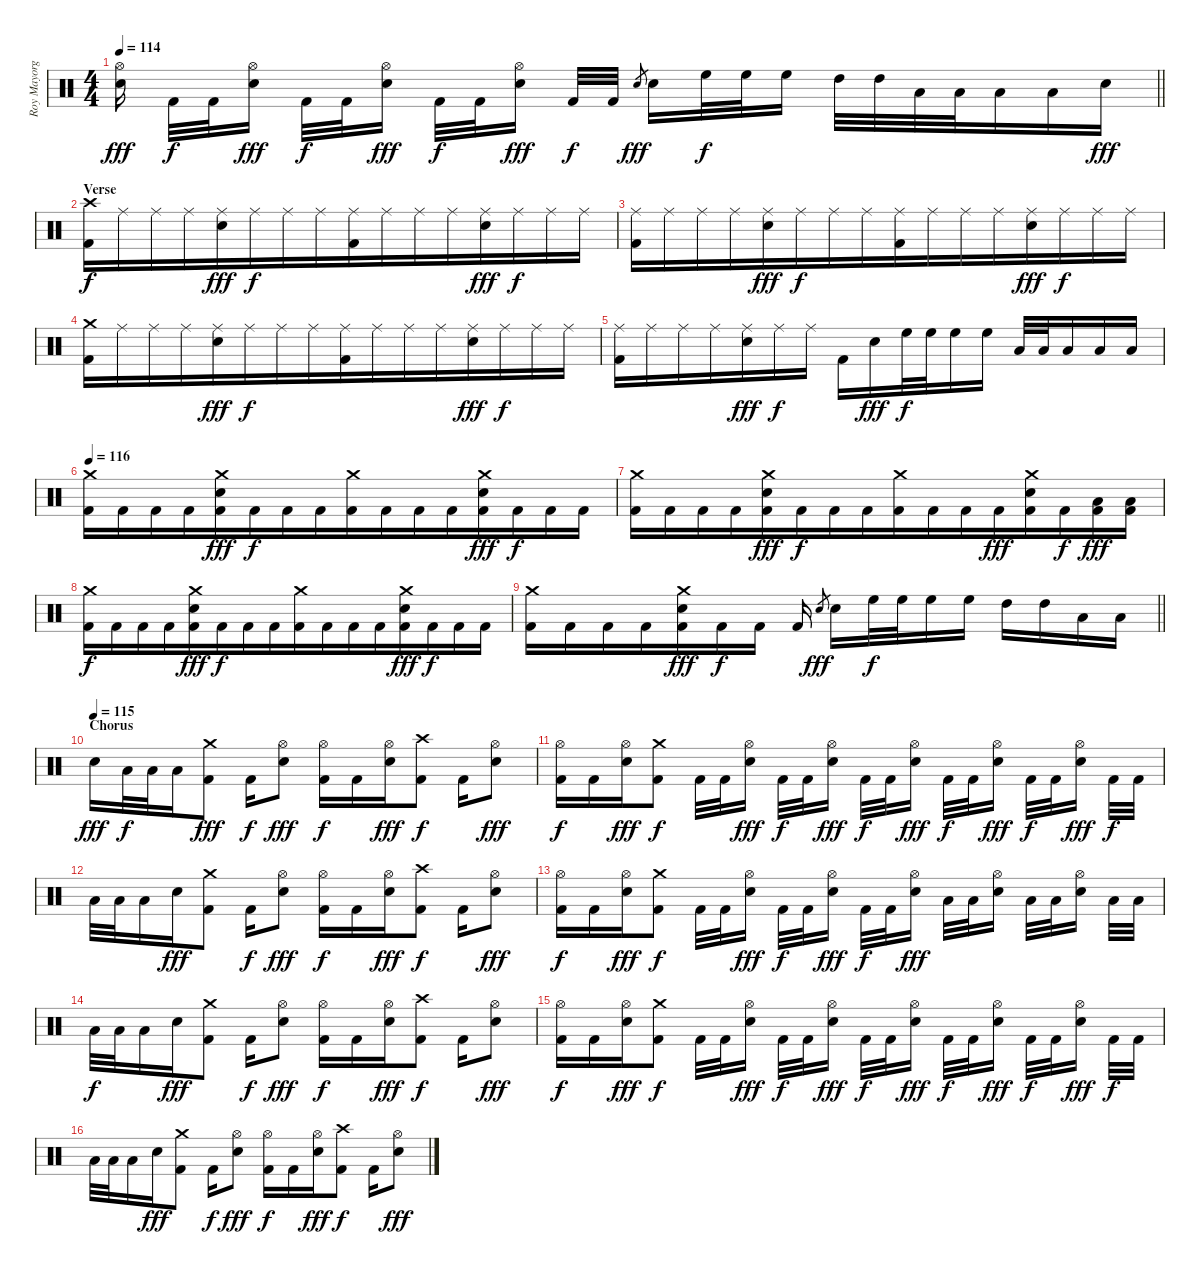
\track ("Roy Mayorga" "Roy Mayorg") {instrument percussion}
\staff {score}
\articulation defaults
\ts (4 4)
\tempo 114
\clef neutral
\barLineRight lightlight
\ks c
("Hi-Hat (open)" "Electric Snare (hit)").16{dy fff beam split} "Kick (hit) 2".32{dy f} "Kick (hit) 2".32 ("Hi-Hat (open)" "Electric Snare (hit)").16{dy fff beam split} "Kick (hit) 2".32{dy f} "Kick (hit) 2".32{beam merge} ("Hi-Hat (open)" "Electric Snare (hit)").16{dy fff beam split} "Kick (hit) 2".32{dy f} "Kick (hit) 2".32 ("Hi-Hat (open)" "Electric Snare (hit)").16{dy fff beam split} "Kick (hit) 2".32{dy f} "Kick (hit) 2".32 "Electric Snare (hit)".8{gr dy fff beam merge} "Electric Snare (hit)".16 "High Floor Tom (hit)".32{dy f} "High Floor Tom (hit)".32 "High Floor Tom (hit)".16{beam split} "High Tom (hit)".32 "High Tom (hit)".32{beam merge} "Low Tom (hit)".32 "Low Tom (hit)".32 "Low Floor Tom (hit)".16 "Low Floor Tom (hit)".16 "Electric Snare (hit)".16{dy fff} |
\section ("" "Verse")
("Crash high (hit)" "Kick (hit) 2").16{dy f} "Ride (middle)".16 "Ride (middle)".16 "Ride (middle)".16{beam merge} ("Ride (middle)" "Electric Snare (hit)").16{dy fff} "Ride (middle)".16{dy f} "Ride (middle)".16 "Ride (middle)".16{beam merge} ("Ride (middle)" "Kick (hit) 2").16 "Ride (middle)".16 "Ride (middle)".16 "Ride (middle)".16{beam merge} ("Ride (middle)" "Electric Snare (hit)").16{dy fff} "Ride (middle)".16{dy f} "Ride (middle)".16 "Ride (middle)".16 |
("Ride (middle)" "Kick (hit) 2").16 "Ride (middle)".16 "Ride (middle)".16 "Ride (middle)".16{beam merge} ("Ride (middle)" "Electric Snare (hit)").16{dy fff} "Ride (middle)".16{dy f} "Ride (middle)".16 "Ride (middle)".16{beam merge} ("Ride (middle)" "Kick (hit) 2").16 "Ride (middle)".16 "Ride (middle)".16 "Ride (middle)".16{beam merge} ("Ride (middle)" "Electric Snare (hit)").16{dy fff} "Ride (middle)".16{dy f} "Ride (middle)".16 "Ride (middle)".16 |
("Crash medium (hit)" "Kick (hit) 2").16 "Ride (middle)".16 "Ride (middle)".16 "Ride (middle)".16{beam merge} ("Ride (middle)" "Electric Snare (hit)").16{dy fff} "Ride (middle)".16{dy f} "Ride (middle)".16 "Ride (middle)".16{beam merge} ("Ride (middle)" "Kick (hit) 2").16 "Ride (middle)".16 "Ride (middle)".16 "Ride (middle)".16{beam merge} ("Ride (middle)" "Electric Snare (hit)").16{dy fff} "Ride (middle)".16{dy f} "Ride (middle)".16 "Ride (middle)".16 |
("Ride (middle)" "Kick (hit) 2").16 "Ride (middle)".16 "Ride (middle)".16 "Ride (middle)".16{beam merge} ("Ride (middle)" "Electric Snare (hit)").16{dy fff} "Ride (middle)".16{dy f} "Ride (middle)".16{beam split} "Kick (hit) 2".16{beam merge} "Electric Snare (hit)".16{dy fff} "High Floor Tom (hit)".32{dy f} "High Floor Tom (hit)".32 "High Floor Tom (hit)".16 "High Floor Tom (hit)".16 "Low Tom (hit)".32 "Low Tom (hit)".32 "Low Floor Tom (hit)".16 "Low Floor Tom (hit)".16 "Low Floor Tom (hit)".16 |
\tempo 116
("Crash medium (hit)" "Kick (hit) 2").16 "Kick (hit) 2".16 "Kick (hit) 2".16 "Kick (hit) 2".16{beam merge} ("Crash medium (hit)" "Electric Snare (hit)" "Kick (hit) 2").16{dy fff} "Kick (hit) 2".16{dy f} "Kick (hit) 2".16 "Kick (hit) 2".16{beam merge} ("Crash medium (hit)" "Kick (hit) 2").16 "Kick (hit) 2".16 "Kick (hit) 2".16 "Kick (hit) 2".16{beam merge} ("Crash medium (hit)" "Electric Snare (hit)" "Kick (hit) 2").16{dy fff} "Kick (hit) 2".16{dy f} "Kick (hit) 2".16 "Kick (hit) 2".16 |
("Crash medium (hit)" "Kick (hit) 2").16 "Kick (hit) 2".16 "Kick (hit) 2".16 "Kick (hit) 2".16{beam merge} ("Crash medium (hit)" "Electric Snare (hit)" "Kick (hit) 2").16{dy fff} "Kick (hit) 2".16{dy f} "Kick (hit) 2".16 "Kick (hit) 2".16{beam merge} ("Crash medium (hit)" "Kick (hit) 2").16 "Kick (hit) 2".16 "Kick (hit) 2".16 "Kick (hit) 2".16{dy fff beam merge} ("Crash medium (hit)" "Electric Snare (hit)" "Kick (hit) 2").16 "Kick (hit) 2".16{dy f} ("Low Tom (hit)" "Kick (hit) 2").16{dy fff} ("Low Floor Tom (hit)" "Kick (hit) 2").16 |
("Crash medium (hit)" "Kick (hit) 2").16{dy f} "Kick (hit) 2".16 "Kick (hit) 2".16 "Kick (hit) 2".16{beam merge} ("Crash medium (hit)" "Electric Snare (hit)" "Kick (hit) 2").16{dy fff} "Kick (hit) 2".16{dy f} "Kick (hit) 2".16 "Kick (hit) 2".16{beam merge} ("Crash medium (hit)" "Kick (hit) 2").16 "Kick (hit) 2".16 "Kick (hit) 2".16 "Kick (hit) 2".16{beam merge} ("Crash medium (hit)" "Electric Snare (hit)" "Kick (hit) 2").16{dy fff} "Kick (hit) 2".16{dy f} "Kick (hit) 2".16 "Kick (hit) 2".16 |
\barLineRight lightlight
("Crash medium (hit)" "Kick (hit) 2").16 "Kick (hit) 2".16 "Kick (hit) 2".16 "Kick (hit) 2".16{beam merge} ("Crash medium (hit)" "Electric Snare (hit)" "Kick (hit) 2").16{dy fff} "Kick (hit) 2".16{dy f} "Kick (hit) 2".16{beam split} "Kick (hit) 2".16 "Electric Snare (hit)".8{gr dy fff beam merge} "Electric Snare (hit)".16 "High Floor Tom (hit)".32{dy f} "High Floor Tom (hit)".32 "High Floor Tom (hit)".16 "High Floor Tom (hit)".16 "High Tom (hit)".16 "High Tom (hit)".16 "Low Tom (hit)".16 "Low Tom (hit)".16 |
\section ("" "Chorus")
\tempo (115)
"Electric Snare (hit)".16{dy fff} "Low Tom (hit)".32{dy f} "Low Tom (hit)".32 "Low Tom (hit)".16 ("Crash medium (hit)" "Kick (hit) 2").8{dy fff} "Kick (hit) 2".16{dy f} ("Hi-Hat (open)" "Electric Snare (hit)").8{dy fff} ("Hi-Hat (open)" "Kick (hit) 2").16{dy f} "Kick (hit) 2".16 ("Hi-Hat (open)" "Electric Snare (hit)").16{dy fff} ("Crash high (hit)" "Kick (hit) 2").8{dy f} "Kick (hit) 2".16 ("Hi-Hat (open)" "Electric Snare (hit)").8{dy fff} |
("Hi-Hat (open)" "Kick (hit) 2").16{dy f} "Kick (hit) 2".16 ("Hi-Hat (open)" "Electric Snare (hit)").16{dy fff} ("Crash medium (hit)" "Kick (hit) 2").8{dy f beam split} "Kick (hit) 2".32 "Kick (hit) 2".32 ("Hi-Hat (open)" "Electric Snare (hit)").16{dy fff beam split} "Kick (hit) 2".32{dy f} "Kick (hit) 2".32{beam merge} ("Hi-Hat (open)" "Electric Snare (hit)").16{dy fff beam split} "Kick (hit) 2".32{dy f} "Kick (hit) 2".32 ("Hi-Hat (open)" "Electric Snare (hit)").16{dy fff beam split} "Kick (hit) 2".32{dy f} "Kick (hit) 2".32{beam merge} ("Hi-Hat (open)" "Electric Snare (hit)").16{dy fff beam split} "Kick (hit) 2".32{dy f} "Kick (hit) 2".32 ("Hi-Hat (open)" "Electric Snare (hit)").16{dy fff beam split} "Kick (hit) 2".32{dy f beam Down} "Kick (hit) 2".32{beam Down} |
"Low Tom (hit)".32 "Low Tom (hit)".32 "Low Tom (hit)".16 "Electric Snare (hit)".16{dy fff} ("Crash medium (hit)" "Kick (hit) 2").8 "Kick (hit) 2".16{dy f} ("Hi-Hat (open)" "Electric Snare (hit)").8{dy fff} ("Hi-Hat (open)" "Kick (hit) 2").16{dy f} "Kick (hit) 2".16 ("Hi-Hat (open)" "Electric Snare (hit)").16{dy fff} ("Crash high (hit)" "Kick (hit) 2").8{dy f} "Kick (hit) 2".16 ("Hi-Hat (open)" "Electric Snare (hit)").8{dy fff} |
("Hi-Hat (open)" "Kick (hit) 2").16{dy f} "Kick (hit) 2".16 ("Hi-Hat (open)" "Electric Snare (hit)").16{dy fff} ("Crash medium (hit)" "Kick (hit) 2").8{dy f} "Kick (hit) 2".32 "Kick (hit) 2".32 ("Hi-Hat (open)" "Electric Snare (hit)").16{dy fff beam split} "Kick (hit) 2".32{dy f} "Kick (hit) 2".32{beam merge} ("Hi-Hat (open)" "Electric Snare (hit)").16{dy fff beam split} "Kick (hit) 2".32{dy f} "Kick (hit) 2".32 ("Hi-Hat (open)" "Electric Snare (hit)").16{dy fff beam split} "Low Floor Tom (hit)".32 "Low Floor Tom (hit)".32{beam merge} ("Hi-Hat (open)" "Electric Snare (hit)").16{beam split} "Low Floor Tom (hit)".32 "Low Floor Tom (hit)".32 ("Hi-Hat (open)" "Electric Snare (hit)").16{beam split} "Low Floor Tom (hit)".32{beam Down} "Low Floor Tom (hit)".32{beam Down} |
"Low Tom (hit)".32{dy f} "Low Tom (hit)".32 "Low Tom (hit)".16 "Electric Snare (hit)".16{dy fff} ("Crash medium (hit)" "Kick (hit) 2").8 "Kick (hit) 2".16{dy f} ("Hi-Hat (open)" "Electric Snare (hit)").8{dy fff} ("Hi-Hat (open)" "Kick (hit) 2").16{dy f} "Kick (hit) 2".16 ("Hi-Hat (open)" "Electric Snare (hit)").16{dy fff} ("Crash high (hit)" "Kick (hit) 2").8{dy f} "Kick (hit) 2".16 ("Hi-Hat (open)" "Electric Snare (hit)").8{dy fff} |
("Hi-Hat (open)" "Kick (hit) 2").16{dy f} "Kick (hit) 2".16 ("Hi-Hat (open)" "Electric Snare (hit)").16{dy fff} ("Crash medium (hit)" "Kick (hit) 2").8{dy f beam split} "Kick (hit) 2".32 "Kick (hit) 2".32 ("Hi-Hat (open)" "Electric Snare (hit)").16{dy fff beam split} "Kick (hit) 2".32{dy f} "Kick (hit) 2".32{beam merge} ("Hi-Hat (open)" "Electric Snare (hit)").16{dy fff beam split} "Kick (hit) 2".32{dy f} "Kick (hit) 2".32 ("Hi-Hat (open)" "Electric Snare (hit)").16{dy fff beam split} "Kick (hit) 2".32{dy f} "Kick (hit) 2".32{beam merge} ("Hi-Hat (open)" "Electric Snare (hit)").16{dy fff beam split} "Kick (hit) 2".32{dy f} "Kick (hit) 2".32 ("Hi-Hat (open)" "Electric Snare (hit)").16{dy fff beam split} "Kick (hit) 2".32{dy f beam Down} "Kick (hit) 2".32{beam Down} |
"Low Tom (hit)".32 "Low Tom (hit)".32 "Low Tom (hit)".16 "Electric Snare (hit)".16{dy fff} ("Crash medium (hit)" "Kick (hit) 2").8 "Kick (hit) 2".16{dy f} ("Hi-Hat (open)" "Electric Snare (hit)").8{dy fff} ("Hi-Hat (open)" "Kick (hit) 2").16{dy f} "Kick (hit) 2".16 ("Hi-Hat (open)" "Electric Snare (hit)").16{dy fff} ("Crash high (hit)" "Kick (hit) 2").8{dy f} "Kick (hit) 2".16 ("Hi-Hat (open)" "Electric Snare (hit)").8{dy fff}
